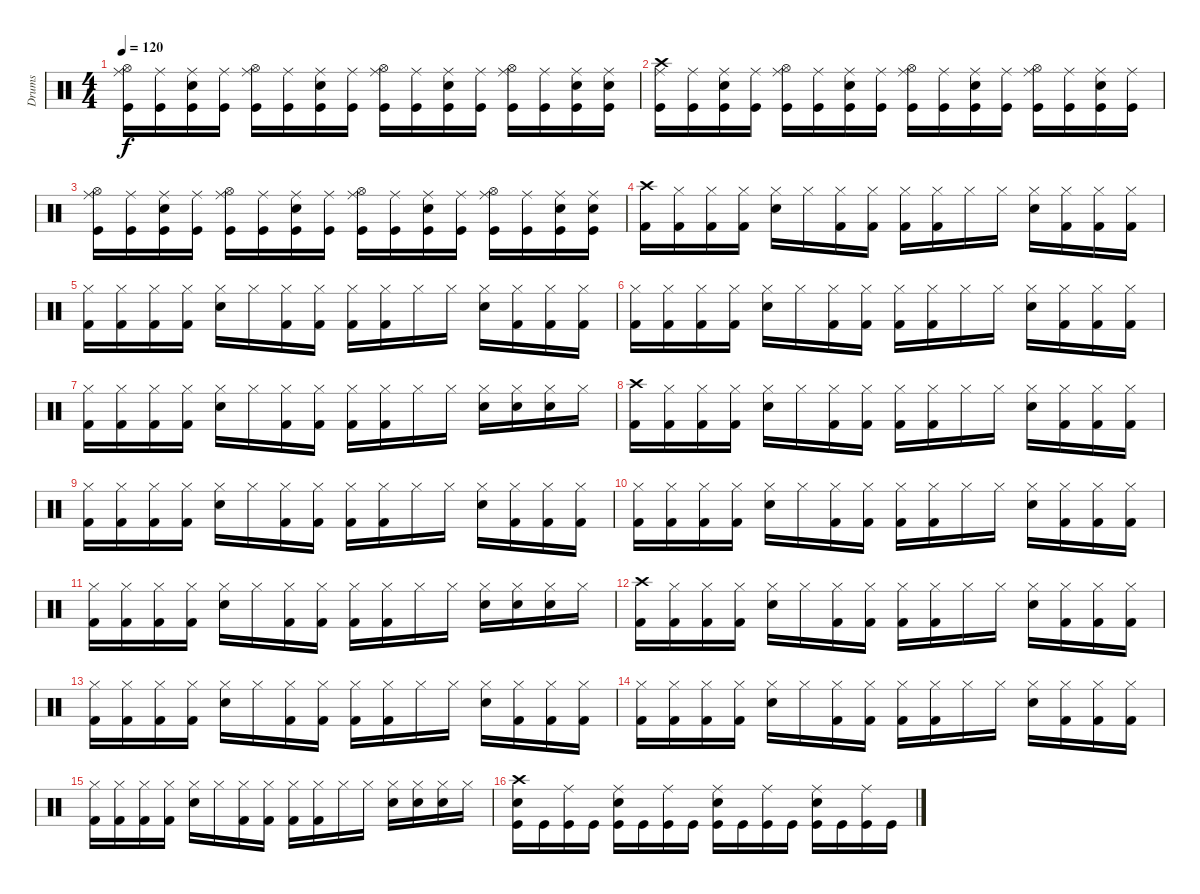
\track ("Drums" "Drums") {instrument percussion}
\staff {score}
\articulation defaults
\ts (4 4)
\tempo 120
\clef neutral
\ks c
("Ride (middle)" "Hi-Hat (open)" "Kick (hit)").16{dy f} ("Ride (middle)" "Kick (hit)").16 ("Ride (middle)" "Electric Snare (hit)" "Kick (hit)").16 ("Ride (middle)" "Kick (hit)").16 ("Ride (middle)" "Hi-Hat (open)" "Kick (hit)").16 ("Ride (middle)" "Kick (hit)").16 ("Ride (middle)" "Electric Snare (hit)" "Kick (hit)").16 ("Ride (middle)" "Kick (hit)").16 ("Ride (middle)" "Hi-Hat (open)" "Kick (hit)").16 ("Ride (middle)" "Kick (hit)").16 ("Ride (middle)" "Electric Snare (hit)" "Kick (hit)").16 ("Ride (middle)" "Kick (hit)").16 ("Ride (middle)" "Hi-Hat (open)" "Kick (hit)").16 ("Ride (middle)" "Kick (hit)").16 ("Ride (middle)" "Snare (hit) 2" "Kick (hit)").16 ("Ride (middle)" "Snare (hit) 2" "Kick (hit)").16 |
("Ride (middle)" "Crash high (hit)" "Kick (hit)").16 ("Ride (middle)" "Kick (hit)").16 ("Ride (middle)" "Electric Snare (hit)" "Kick (hit)").16 ("Ride (middle)" "Kick (hit)").16 ("Ride (middle)" "Hi-Hat (open)" "Kick (hit)").16 ("Ride (middle)" "Kick (hit)").16 ("Ride (middle)" "Electric Snare (hit)" "Kick (hit)").16 ("Ride (middle)" "Kick (hit)").16 ("Ride (middle)" "Hi-Hat (open)" "Kick (hit)").16 ("Ride (middle)" "Kick (hit)").16 ("Ride (middle)" "Electric Snare (hit)" "Kick (hit)").16 ("Ride (middle)" "Kick (hit)").16 ("Ride (middle)" "Hi-Hat (open)" "Kick (hit)").16 ("Ride (middle)" "Kick (hit)").16 ("Ride (middle)" "Electric Snare (hit)" "Kick (hit)").16 ("Ride (middle)" "Kick (hit)").16 |
("Ride (middle)" "Hi-Hat (open)" "Kick (hit)").16 ("Ride (middle)" "Kick (hit)").16 ("Ride (middle)" "Electric Snare (hit)" "Kick (hit)").16 ("Ride (middle)" "Kick (hit)").16 ("Ride (middle)" "Hi-Hat (open)" "Kick (hit)").16 ("Ride (middle)" "Kick (hit)").16 ("Ride (middle)" "Electric Snare (hit)" "Kick (hit)").16 ("Ride (middle)" "Kick (hit)").16 ("Ride (middle)" "Hi-Hat (open)" "Kick (hit)").16 ("Ride (middle)" "Kick (hit)").16 ("Ride (middle)" "Electric Snare (hit)" "Kick (hit)").16 ("Ride (middle)" "Kick (hit)").16 ("Ride (middle)" "Hi-Hat (open)" "Kick (hit)").16 ("Ride (middle)" "Kick (hit)").16 ("Ride (middle)" "Snare (hit) 2" "Kick (hit)").16 ("Ride (middle)" "Snare (hit) 2" "Kick (hit)").16 |
("Crash high (hit)" "Kick (hit) 2").16 ("Hi-Hat (closed)" "Kick (hit) 2").16 ("Hi-Hat (closed)" "Kick (hit) 2").16 ("Hi-Hat (closed)" "Kick (hit) 2").16 ("Hi-Hat (closed)" "Electric Snare (hit)").16 "Hi-Hat (closed)".16 ("Hi-Hat (closed)" "Kick (hit) 2").16 ("Hi-Hat (closed)" "Kick (hit) 2").16 ("Hi-Hat (closed)" "Kick (hit) 2").16 ("Hi-Hat (closed)" "Kick (hit) 2").16 "Hi-Hat (closed)".16 "Hi-Hat (closed)".16 ("Hi-Hat (closed)" "Electric Snare (hit)").16 ("Hi-Hat (closed)" "Kick (hit) 2").16 ("Hi-Hat (closed)" "Kick (hit) 2").16 ("Hi-Hat (closed)" "Kick (hit) 2").16 |
("Hi-Hat (closed)" "Kick (hit) 2").16 ("Hi-Hat (closed)" "Kick (hit) 2").16 ("Hi-Hat (closed)" "Kick (hit) 2").16 ("Hi-Hat (closed)" "Kick (hit) 2").16 ("Hi-Hat (closed)" "Electric Snare (hit)").16 "Hi-Hat (closed)".16 ("Hi-Hat (closed)" "Kick (hit) 2").16 ("Hi-Hat (closed)" "Kick (hit) 2").16 ("Hi-Hat (closed)" "Kick (hit) 2").16 ("Hi-Hat (closed)" "Kick (hit) 2").16 "Hi-Hat (closed)".16 "Hi-Hat (closed)".16 ("Hi-Hat (closed)" "Electric Snare (hit)").16 ("Hi-Hat (closed)" "Kick (hit) 2").16 ("Hi-Hat (closed)" "Kick (hit) 2").16 ("Hi-Hat (closed)" "Kick (hit) 2").16 |
("Hi-Hat (closed)" "Kick (hit) 2").16 ("Hi-Hat (closed)" "Kick (hit) 2").16 ("Hi-Hat (closed)" "Kick (hit) 2").16 ("Hi-Hat (closed)" "Kick (hit) 2").16 ("Hi-Hat (closed)" "Electric Snare (hit)").16 "Hi-Hat (closed)".16 ("Hi-Hat (closed)" "Kick (hit) 2").16 ("Hi-Hat (closed)" "Kick (hit) 2").16 ("Hi-Hat (closed)" "Kick (hit) 2").16 ("Hi-Hat (closed)" "Kick (hit) 2").16 "Hi-Hat (closed)".16 "Hi-Hat (closed)".16 ("Hi-Hat (closed)" "Electric Snare (hit)").16 ("Hi-Hat (closed)" "Kick (hit) 2").16 ("Hi-Hat (closed)" "Kick (hit) 2").16 ("Hi-Hat (closed)" "Kick (hit) 2").16 |
("Hi-Hat (closed)" "Kick (hit) 2").16 ("Hi-Hat (closed)" "Kick (hit) 2").16 ("Hi-Hat (closed)" "Kick (hit) 2").16 ("Hi-Hat (closed)" "Kick (hit) 2").16 ("Hi-Hat (closed)" "Electric Snare (hit)").16 "Hi-Hat (closed)".16 ("Hi-Hat (closed)" "Kick (hit) 2").16 ("Hi-Hat (closed)" "Kick (hit) 2").16 ("Hi-Hat (closed)" "Kick (hit) 2").16 ("Hi-Hat (closed)" "Kick (hit) 2").16 "Hi-Hat (closed)".16 "Hi-Hat (closed)".16 ("Hi-Hat (closed)" "Electric Snare (hit)").16 ("Hi-Hat (closed)" "Electric Snare (hit)").16 ("Hi-Hat (closed)" "Electric Snare (hit)").16 "Hi-Hat (closed)".16 |
("Crash high (hit)" "Kick (hit) 2").16 ("Hi-Hat (closed)" "Kick (hit) 2").16 ("Hi-Hat (closed)" "Kick (hit) 2").16 ("Hi-Hat (closed)" "Kick (hit) 2").16 ("Hi-Hat (closed)" "Electric Snare (hit)").16 "Hi-Hat (closed)".16 ("Hi-Hat (closed)" "Kick (hit) 2").16 ("Hi-Hat (closed)" "Kick (hit) 2").16 ("Hi-Hat (closed)" "Kick (hit) 2").16 ("Hi-Hat (closed)" "Kick (hit) 2").16 "Hi-Hat (closed)".16 "Hi-Hat (closed)".16 ("Hi-Hat (closed)" "Electric Snare (hit)").16 ("Hi-Hat (closed)" "Kick (hit) 2").16 ("Hi-Hat (closed)" "Kick (hit) 2").16 ("Hi-Hat (closed)" "Kick (hit) 2").16 |
("Hi-Hat (closed)" "Kick (hit) 2").16 ("Hi-Hat (closed)" "Kick (hit) 2").16 ("Hi-Hat (closed)" "Kick (hit) 2").16 ("Hi-Hat (closed)" "Kick (hit) 2").16 ("Hi-Hat (closed)" "Electric Snare (hit)").16 "Hi-Hat (closed)".16 ("Hi-Hat (closed)" "Kick (hit) 2").16 ("Hi-Hat (closed)" "Kick (hit) 2").16 ("Hi-Hat (closed)" "Kick (hit) 2").16 ("Hi-Hat (closed)" "Kick (hit) 2").16 "Hi-Hat (closed)".16 "Hi-Hat (closed)".16 ("Hi-Hat (closed)" "Electric Snare (hit)").16 ("Hi-Hat (closed)" "Kick (hit) 2").16 ("Hi-Hat (closed)" "Kick (hit) 2").16 ("Hi-Hat (closed)" "Kick (hit) 2").16 |
("Hi-Hat (closed)" "Kick (hit) 2").16 ("Hi-Hat (closed)" "Kick (hit) 2").16 ("Hi-Hat (closed)" "Kick (hit) 2").16 ("Hi-Hat (closed)" "Kick (hit) 2").16 ("Hi-Hat (closed)" "Electric Snare (hit)").16 "Hi-Hat (closed)".16 ("Hi-Hat (closed)" "Kick (hit) 2").16 ("Hi-Hat (closed)" "Kick (hit) 2").16 ("Hi-Hat (closed)" "Kick (hit) 2").16 ("Hi-Hat (closed)" "Kick (hit) 2").16 "Hi-Hat (closed)".16 "Hi-Hat (closed)".16 ("Hi-Hat (closed)" "Electric Snare (hit)").16 ("Hi-Hat (closed)" "Kick (hit) 2").16 ("Hi-Hat (closed)" "Kick (hit) 2").16 ("Hi-Hat (closed)" "Kick (hit) 2").16 |
("Hi-Hat (closed)" "Kick (hit) 2").16 ("Hi-Hat (closed)" "Kick (hit) 2").16 ("Hi-Hat (closed)" "Kick (hit) 2").16 ("Hi-Hat (closed)" "Kick (hit) 2").16 ("Hi-Hat (closed)" "Electric Snare (hit)").16 "Hi-Hat (closed)".16 ("Hi-Hat (closed)" "Kick (hit) 2").16 ("Hi-Hat (closed)" "Kick (hit) 2").16 ("Hi-Hat (closed)" "Kick (hit) 2").16 ("Hi-Hat (closed)" "Kick (hit) 2").16 "Hi-Hat (closed)".16 "Hi-Hat (closed)".16 ("Hi-Hat (closed)" "Electric Snare (hit)").16 ("Hi-Hat (closed)" "Electric Snare (hit)").16 ("Hi-Hat (closed)" "Electric Snare (hit)").16 "Hi-Hat (closed)".16 |
("Crash high (hit)" "Kick (hit) 2").16 ("Hi-Hat (closed)" "Kick (hit) 2").16 ("Hi-Hat (closed)" "Kick (hit) 2").16 ("Hi-Hat (closed)" "Kick (hit) 2").16 ("Hi-Hat (closed)" "Electric Snare (hit)").16 "Hi-Hat (closed)".16 ("Hi-Hat (closed)" "Kick (hit) 2").16 ("Hi-Hat (closed)" "Kick (hit) 2").16 ("Hi-Hat (closed)" "Kick (hit) 2").16 ("Hi-Hat (closed)" "Kick (hit) 2").16 "Hi-Hat (closed)".16 "Hi-Hat (closed)".16 ("Hi-Hat (closed)" "Electric Snare (hit)").16 ("Hi-Hat (closed)" "Kick (hit) 2").16 ("Hi-Hat (closed)" "Kick (hit) 2").16 ("Hi-Hat (closed)" "Kick (hit) 2").16 |
("Hi-Hat (closed)" "Kick (hit) 2").16 ("Hi-Hat (closed)" "Kick (hit) 2").16 ("Hi-Hat (closed)" "Kick (hit) 2").16 ("Hi-Hat (closed)" "Kick (hit) 2").16 ("Hi-Hat (closed)" "Electric Snare (hit)").16 "Hi-Hat (closed)".16 ("Hi-Hat (closed)" "Kick (hit) 2").16 ("Hi-Hat (closed)" "Kick (hit) 2").16 ("Hi-Hat (closed)" "Kick (hit) 2").16 ("Hi-Hat (closed)" "Kick (hit) 2").16 "Hi-Hat (closed)".16 "Hi-Hat (closed)".16 ("Hi-Hat (closed)" "Electric Snare (hit)").16 ("Hi-Hat (closed)" "Kick (hit) 2").16 ("Hi-Hat (closed)" "Kick (hit) 2").16 ("Hi-Hat (closed)" "Kick (hit) 2").16 |
("Hi-Hat (closed)" "Kick (hit) 2").16 ("Hi-Hat (closed)" "Kick (hit) 2").16 ("Hi-Hat (closed)" "Kick (hit) 2").16 ("Hi-Hat (closed)" "Kick (hit) 2").16 ("Hi-Hat (closed)" "Electric Snare (hit)").16 "Hi-Hat (closed)".16 ("Hi-Hat (closed)" "Kick (hit) 2").16 ("Hi-Hat (closed)" "Kick (hit) 2").16 ("Hi-Hat (closed)" "Kick (hit) 2").16 ("Hi-Hat (closed)" "Kick (hit) 2").16 "Hi-Hat (closed)".16 "Hi-Hat (closed)".16 ("Hi-Hat (closed)" "Electric Snare (hit)").16 ("Hi-Hat (closed)" "Kick (hit) 2").16 ("Hi-Hat (closed)" "Kick (hit) 2").16 ("Hi-Hat (closed)" "Kick (hit) 2").16 |
("Hi-Hat (closed)" "Kick (hit) 2").16 ("Hi-Hat (closed)" "Kick (hit) 2").16 ("Hi-Hat (closed)" "Kick (hit) 2").16 ("Hi-Hat (closed)" "Kick (hit) 2").16 ("Hi-Hat (closed)" "Electric Snare (hit)").16 "Hi-Hat (closed)".16 ("Hi-Hat (closed)" "Kick (hit) 2").16 ("Hi-Hat (closed)" "Kick (hit) 2").16 ("Hi-Hat (closed)" "Kick (hit) 2").16 ("Hi-Hat (closed)" "Kick (hit) 2").16 "Hi-Hat (closed)".16 "Hi-Hat (closed)".16 ("Hi-Hat (closed)" "Electric Snare (hit)").16 ("Hi-Hat (closed)" "Electric Snare (hit)").16 ("Hi-Hat (closed)" "Electric Snare (hit)").16 "Hi-Hat (closed)".16 |
("Crash high (hit)" "Snare (hit) 2" "Kick (hit)").16 "Kick (hit)".16 ("Ride (middle)" "Kick (hit)").16 "Kick (hit)".16 ("Ride (middle)" "Snare (hit) 2" "Kick (hit)").16 "Kick (hit)".16 ("Ride (middle)" "Kick (hit)").16 "Kick (hit)".16 ("Ride (middle)" "Snare (hit) 2" "Kick (hit)").16 "Kick (hit)".16 ("Ride (middle)" "Kick (hit)").16 "Kick (hit)".16 ("Ride (middle)" "Snare (hit) 2" "Kick (hit)").16 "Kick (hit)".16 ("Ride (middle)" "Kick (hit)").16 "Kick (hit)".16
